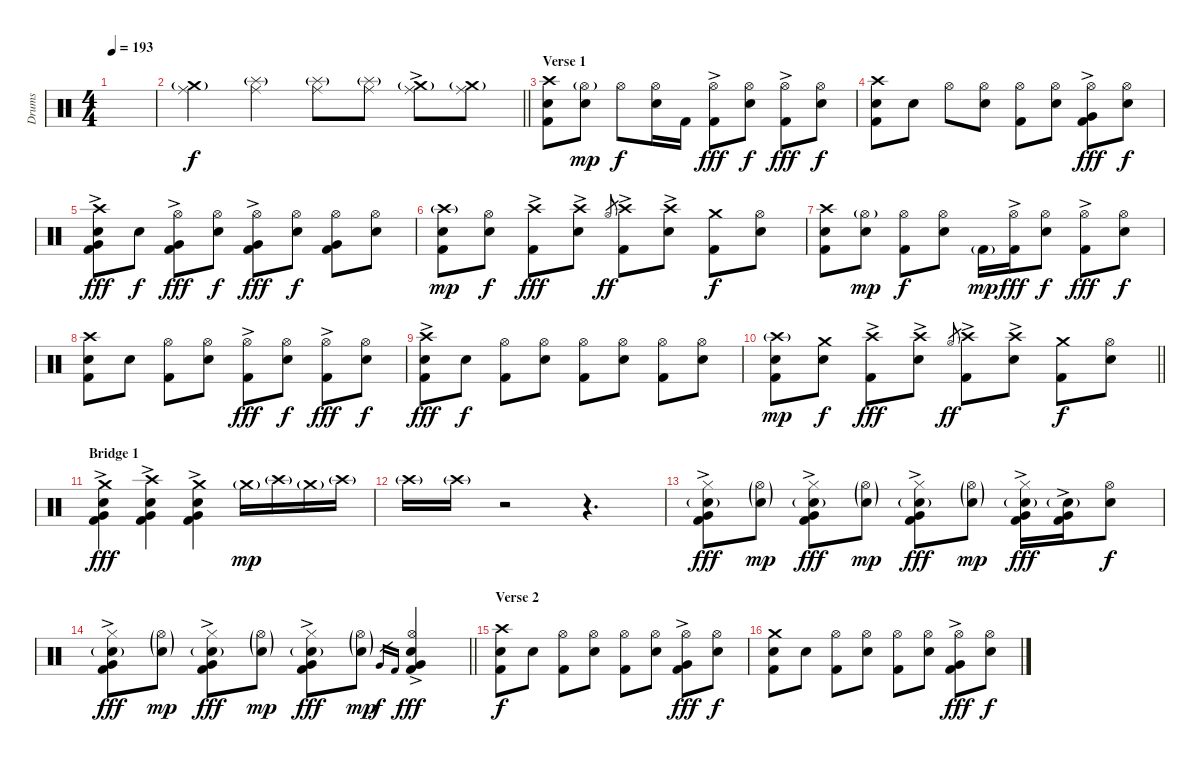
\track ("Drums" "Drums") {instrument percussion}
\staff {score}
\articulation defaults
\ts (4 4)
\tempo 193
\clef neutral
\ks c
|
\barLineRight lightlight
("Ride (middle)" "Crash medium (hit)"{g}).4 ("Ride (middle)" "Splash (hit)"{g}).4 ("Ride (middle)" "Splash (hit)"{g}).8 ("Ride (middle)" "Splash (hit)"{g}).8 ("Ride (middle)"{ac} "Crash medium (hit)"{g}).8 ("Ride (middle)" "Crash medium (hit)"{g}).8 |
\section ("" "Verse 1")
("Crash high (hit)" "Snare (hit) 2" "Kick (hit) 2").8{dy f} ("Hi-Hat (open)"{g} "Electric Snare (hit)").8{dy mp} "Hi-Hat (open)".8{dy f} ("Hi-Hat (open)" "Electric Snare (hit)").16 "Kick (hit) 2".16 ("Hi-Hat (open)" "Kick (hit) 2"{ac}).8{dy fff} ("Hi-Hat (open)" "Electric Snare (hit)").8{dy f} ("Hi-Hat (open)" "Kick (hit) 2"{ac}).8{dy fff} ("Hi-Hat (open)" "Electric Snare (hit)").8{dy f} |
("Crash high (hit)" "Snare (hit) 2" "Kick (hit) 2").8 "Electric Snare (hit)".8 "Hi-Hat (open)".8 ("Hi-Hat (open)" "Electric Snare (hit)").8 ("Hi-Hat (open)" "Kick (hit) 2").8 ("Hi-Hat (open)" "Electric Snare (hit)").8 ("Hi-Hat (open)" "Very Low Tom (hit)"{ac} "Kick (hit) 2"{ac}).8{dy fff} ("Hi-Hat (open)" "Electric Snare (hit)").8{dy f} |
("Crash high (hit)" "Snare (hit) 2" "Very Low Tom (hit)"{ac} "Kick (hit) 2"{ac}).8{dy fff} "Electric Snare (hit)".8{dy f} ("Hi-Hat (open)" "Very Low Tom (hit)"{ac} "Kick (hit) 2"{ac}).8{dy fff} ("Hi-Hat (open)" "Electric Snare (hit)").8{dy f} ("Hi-Hat (open)" "Very Low Tom (hit)"{ac} "Kick (hit) 2"{ac}).8{dy fff} ("Hi-Hat (open)" "Electric Snare (hit)").8{dy f} ("Hi-Hat (open)" "Very Low Tom (hit)" "Kick (hit) 2").8 ("Hi-Hat (open)" "Electric Snare (hit)").8 |
("Crash high (hit)"{g} "Snare (hit) 2" "Kick (hit) 2").8{dy mp} ("Hi-Hat (open)" "Electric Snare (hit)").8{dy f} ("Crash high (hit)"{ac} "Kick (hit) 2").8{dy fff} ("Crash high (hit)"{ac} "Electric Snare (hit)").8 "Hi-Hat (open)".8{gr dy ff} ("Crash high (hit)"{ac} "Kick (hit) 2").8 ("Crash high (hit)"{ac} "Electric Snare (hit)").8 ("Crash medium (hit)" "Kick (hit) 2").8{dy f} ("Hi-Hat (open)" "Electric Snare (hit)").8 |
("Crash high (hit)" "Snare (hit) 2" "Kick (hit) 2").8 ("Hi-Hat (open)"{g} "Electric Snare (hit)").8{dy mp} ("Hi-Hat (open)" "Kick (hit) 2").8{dy f} ("Hi-Hat (open)" "Electric Snare (hit)").8 "Kick (hit) 2"{g}.16{dy mp} ("Hi-Hat (open)" "Kick (hit) 2"{ac}).16{dy fff} ("Hi-Hat (open)" "Electric Snare (hit)").8{dy f} ("Hi-Hat (open)" "Kick (hit) 2"{ac}).8{dy fff} ("Hi-Hat (open)" "Electric Snare (hit)").8{dy f} |
("Crash high (hit)" "Snare (hit) 2" "Kick (hit) 2").8 "Electric Snare (hit)".8 ("Hi-Hat (open)" "Kick (hit) 2").8 ("Hi-Hat (open)" "Electric Snare (hit)").8 ("Hi-Hat (open)" "Kick (hit) 2"{ac}).8{dy fff} ("Hi-Hat (open)" "Electric Snare (hit)").8{dy f} ("Hi-Hat (open)" "Kick (hit) 2"{ac}).8{dy fff} ("Hi-Hat (open)" "Electric Snare (hit)").8{dy f} |
("Crash high (hit)"{ac} "Snare (hit) 2" "Kick (hit) 2").8{dy fff} "Electric Snare (hit)".8{dy f} ("Hi-Hat (open)" "Kick (hit) 2").8 ("Hi-Hat (open)" "Electric Snare (hit)").8 ("Hi-Hat (open)" "Kick (hit) 2").8 ("Hi-Hat (open)" "Electric Snare (hit)").8 ("Hi-Hat (open)" "Kick (hit) 2").8 ("Hi-Hat (open)" "Electric Snare (hit)").8 |
\barLineRight lightlight
("Crash high (hit)"{g} "Snare (hit) 2" "Kick (hit) 2").8{dy mp} ("Crash medium (hit)" "Electric Snare (hit)").8{dy f} ("Crash high (hit)"{ac} "Kick (hit) 2").8{dy fff} ("Crash high (hit)"{ac} "Electric Snare (hit)").8 "Hi-Hat (open)".8{gr dy ff} ("Crash high (hit)"{ac} "Kick (hit) 2").8 ("Crash high (hit)"{ac} "Electric Snare (hit)").8 ("Crash medium (hit)" "Kick (hit) 2").8{dy f} ("Hi-Hat (open)" "Electric Snare (hit)").8 |
\section ("" "Bridge 1")
("Crash medium (hit)" "Electric Snare (hit)" "Very Low Tom (hit)"{ac} "Kick (hit) 2"{ac}).4{dy fff} ("Crash high (hit)" "Electric Snare (hit)" "Very Low Tom (hit)"{ac} "Kick (hit) 2"{ac}).4 ("Crash medium (hit)" "Electric Snare (hit)" "Very Low Tom (hit)"{ac} "Kick (hit) 2"{ac}).4 "Crash medium (hit)"{g}.16{dy mp} "Crash high (hit)"{g}.16 "Crash medium (hit)"{g}.16 "Crash high (hit)"{g}.16 |
"Crash high (hit)"{g}.16 "Crash high (hit)"{g}.16 r.2 r.4{d} |
("Hi-Hat (closed)" "Electric Snare (hit)"{g} "Very Low Tom (hit)" "Kick (hit) 2"{ac}).8{dy fff} ("Hi-Hat (open)"{g} "Electric Snare (hit)"{g}).8{dy mp} ("Hi-Hat (closed)" "Electric Snare (hit)"{g} "Very Low Tom (hit)" "Kick (hit) 2"{ac}).8{dy fff} ("Hi-Hat (open)"{g} "Electric Snare (hit)"{g}).8{dy mp} ("Hi-Hat (closed)" "Electric Snare (hit)"{g} "Very Low Tom (hit)" "Kick (hit) 2"{ac}).8{dy fff} ("Hi-Hat (open)"{g} "Electric Snare (hit)"{g}).8{dy mp} ("Hi-Hat (closed)" "Electric Snare (hit)"{g} "Very Low Tom (hit)"{ac} "Kick (hit) 2"{ac}).16{dy fff} ("Electric Snare (hit)"{g} "Very Low Tom (hit)"{ac} "Kick (hit) 2"{ac}).16 ("Hi-Hat (open)" "Electric Snare (hit)").8{dy f} |
\barLineRight lightlight
("Hi-Hat (closed)" "Electric Snare (hit)"{g} "Very Low Tom (hit)" "Kick (hit) 2"{ac}).8{dy fff} ("Hi-Hat (open)"{g} "Electric Snare (hit)"{g}).8{dy mp} ("Hi-Hat (closed)" "Electric Snare (hit)"{g} "Very Low Tom (hit)" "Kick (hit) 2"{ac}).8{dy fff} ("Hi-Hat (open)"{g} "Electric Snare (hit)"{g}).8{dy mp} ("Hi-Hat (closed)" "Electric Snare (hit)"{g} "Very Low Tom (hit)" "Kick (hit) 2"{ac}).8{dy fff} ("Hi-Hat (open)"{g} "Electric Snare (hit)"{g}).8{dy mp} "Very Low Tom (hit)".16{gr dy f} "Kick (hit) 2".16{gr} ("Hi-Hat (open)"{ac} "Electric Snare (hit)"{ac} "Very Low Tom (hit)"{ac} "Kick (hit) 2"{ac}).4{dy fff} |
\section ("" "Verse 2")
("Crash high (hit)" "Snare (hit) 2" "Kick (hit) 2").8{dy f} "Electric Snare (hit)".8 ("Hi-Hat (open)" "Kick (hit) 2").8 ("Hi-Hat (open)" "Electric Snare (hit)").8 ("Hi-Hat (open)" "Kick (hit) 2").8 ("Hi-Hat (open)" "Electric Snare (hit)").8 ("Hi-Hat (open)" "Very Low Tom (hit)"{ac} "Kick (hit) 2"{ac}).8{dy fff} ("Hi-Hat (open)" "Electric Snare (hit)").8{dy f} |
("Crash medium (hit)" "Snare (hit) 2" "Kick (hit) 2").8 "Electric Snare (hit)".8 ("Hi-Hat (open)" "Kick (hit) 2").8 ("Hi-Hat (open)" "Electric Snare (hit)").8 ("Hi-Hat (open)" "Kick (hit) 2").8 ("Hi-Hat (open)" "Electric Snare (hit)").8 ("Hi-Hat (open)" "Very Low Tom (hit)"{ac} "Kick (hit) 2"{ac}).8{dy fff} ("Hi-Hat (open)" "Electric Snare (hit)").8{dy f}
